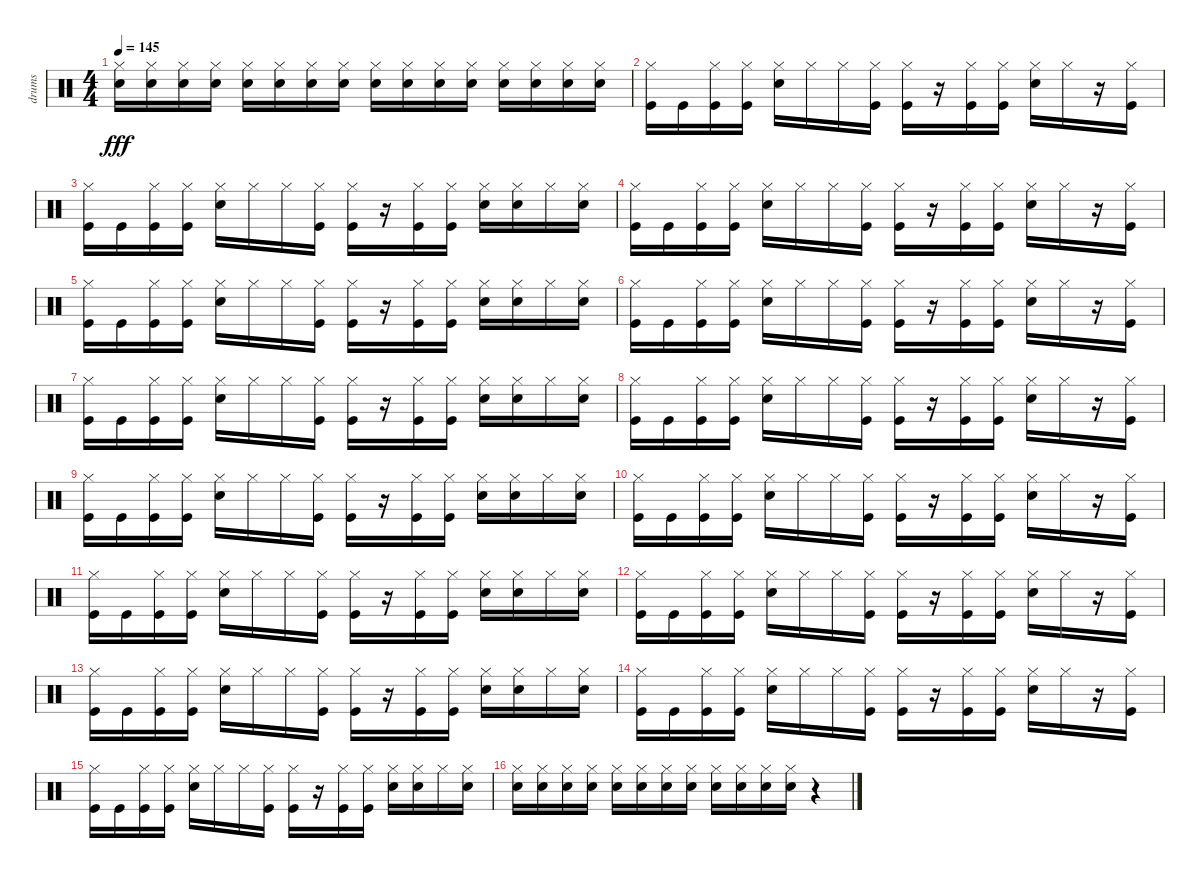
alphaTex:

\track ("drums" "drums") {instrument percussion}
\staff {score}
\articulation defaults
\ts (4 4)
\tempo 145
\clef neutral
\ks c
("Snare (hit) 2" "Hi-Hat (closed)").16{dy fff} ("Snare (hit) 2" "Hi-Hat (closed)").16 ("Snare (hit) 2" "Hi-Hat (closed)").16 ("Snare (hit) 2" "Hi-Hat (closed)").16 ("Snare (hit) 2" "Hi-Hat (closed)").16 ("Snare (hit) 2" "Hi-Hat (closed)").16 ("Snare (hit) 2" "Hi-Hat (closed)").16 ("Snare (hit) 2" "Hi-Hat (closed)").16 ("Snare (hit) 2" "Hi-Hat (closed)").16 ("Snare (hit) 2" "Hi-Hat (closed)").16 ("Snare (hit) 2" "Hi-Hat (closed)").16 ("Snare (hit) 2" "Hi-Hat (closed)").16 ("Snare (hit) 2" "Hi-Hat (closed)").16 ("Snare (hit) 2" "Hi-Hat (closed)").16 ("Snare (hit) 2" "Hi-Hat (closed)").16 ("Snare (hit) 2" "Hi-Hat (closed)").16 |
("Kick (hit)" "Hi-Hat (closed)").16 "Kick (hit)".16 ("Kick (hit)" "Hi-Hat (closed)").16 ("Kick (hit)" "Hi-Hat (closed)").16 ("Snare (hit) 2" "Hi-Hat (closed)").16 "Hi-Hat (closed)".16 "Hi-Hat (closed)".16 ("Kick (hit)" "Hi-Hat (closed)").16 ("Kick (hit)" "Hi-Hat (closed)").16 r.16 ("Kick (hit)" "Hi-Hat (closed)").16 ("Kick (hit)" "Hi-Hat (closed)").16 ("Snare (hit) 2" "Hi-Hat (closed)").16 "Hi-Hat (closed)".16 r.16 ("Kick (hit)" "Hi-Hat (closed)").16 |
("Kick (hit)" "Hi-Hat (closed)").16 "Kick (hit)".16 ("Kick (hit)" "Hi-Hat (closed)").16 ("Kick (hit)" "Hi-Hat (closed)").16 ("Snare (hit) 2" "Hi-Hat (closed)").16 "Hi-Hat (closed)".16 "Hi-Hat (closed)".16 ("Kick (hit)" "Hi-Hat (closed)").16 ("Kick (hit)" "Hi-Hat (closed)").16 r.16 ("Kick (hit)" "Hi-Hat (closed)").16 ("Kick (hit)" "Hi-Hat (closed)").16 ("Snare (hit) 2" "Hi-Hat (closed)").16 ("Snare (hit) 2" "Hi-Hat (closed)").16 "Hi-Hat (closed)".16 ("Snare (hit) 2" "Hi-Hat (closed)").16 |
("Kick (hit)" "Hi-Hat (closed)").16 "Kick (hit)".16 ("Kick (hit)" "Hi-Hat (closed)").16 ("Kick (hit)" "Hi-Hat (closed)").16 ("Snare (hit) 2" "Hi-Hat (closed)").16 "Hi-Hat (closed)".16 "Hi-Hat (closed)".16 ("Kick (hit)" "Hi-Hat (closed)").16 ("Kick (hit)" "Hi-Hat (closed)").16 r.16 ("Kick (hit)" "Hi-Hat (closed)").16 ("Kick (hit)" "Hi-Hat (closed)").16 ("Snare (hit) 2" "Hi-Hat (closed)").16 "Hi-Hat (closed)".16 r.16 ("Kick (hit)" "Hi-Hat (closed)").16 |
("Kick (hit)" "Hi-Hat (closed)").16 "Kick (hit)".16 ("Kick (hit)" "Hi-Hat (closed)").16 ("Kick (hit)" "Hi-Hat (closed)").16 ("Snare (hit) 2" "Hi-Hat (closed)").16 "Hi-Hat (closed)".16 "Hi-Hat (closed)".16 ("Kick (hit)" "Hi-Hat (closed)").16 ("Kick (hit)" "Hi-Hat (closed)").16 r.16 ("Kick (hit)" "Hi-Hat (closed)").16 ("Kick (hit)" "Hi-Hat (closed)").16 ("Snare (hit) 2" "Hi-Hat (closed)").16 ("Snare (hit) 2" "Hi-Hat (closed)").16 "Hi-Hat (closed)".16 ("Snare (hit) 2" "Hi-Hat (closed)").16 |
("Kick (hit)" "Hi-Hat (closed)").16 "Kick (hit)".16 ("Kick (hit)" "Hi-Hat (closed)").16 ("Kick (hit)" "Hi-Hat (closed)").16 ("Snare (hit) 2" "Hi-Hat (closed)").16 "Hi-Hat (closed)".16 "Hi-Hat (closed)".16 ("Kick (hit)" "Hi-Hat (closed)").16 ("Kick (hit)" "Hi-Hat (closed)").16 r.16 ("Kick (hit)" "Hi-Hat (closed)").16 ("Kick (hit)" "Hi-Hat (closed)").16 ("Snare (hit) 2" "Hi-Hat (closed)").16 "Hi-Hat (closed)".16 r.16 ("Kick (hit)" "Hi-Hat (closed)").16 |
("Kick (hit)" "Hi-Hat (closed)").16 "Kick (hit)".16 ("Kick (hit)" "Hi-Hat (closed)").16 ("Kick (hit)" "Hi-Hat (closed)").16 ("Snare (hit) 2" "Hi-Hat (closed)").16 "Hi-Hat (closed)".16 "Hi-Hat (closed)".16 ("Kick (hit)" "Hi-Hat (closed)").16 ("Kick (hit)" "Hi-Hat (closed)").16 r.16 ("Kick (hit)" "Hi-Hat (closed)").16 ("Kick (hit)" "Hi-Hat (closed)").16 ("Snare (hit) 2" "Hi-Hat (closed)").16 ("Snare (hit) 2" "Hi-Hat (closed)").16 "Hi-Hat (closed)".16 ("Snare (hit) 2" "Hi-Hat (closed)").16 |
("Kick (hit)" "Hi-Hat (closed)").16 "Kick (hit)".16 ("Kick (hit)" "Hi-Hat (closed)").16 ("Kick (hit)" "Hi-Hat (closed)").16 ("Snare (hit) 2" "Hi-Hat (closed)").16 "Hi-Hat (closed)".16 "Hi-Hat (closed)".16 ("Kick (hit)" "Hi-Hat (closed)").16 ("Kick (hit)" "Hi-Hat (closed)").16 r.16 ("Kick (hit)" "Hi-Hat (closed)").16 ("Kick (hit)" "Hi-Hat (closed)").16 ("Snare (hit) 2" "Hi-Hat (closed)").16 "Hi-Hat (closed)".16 r.16 ("Kick (hit)" "Hi-Hat (closed)").16 |
("Kick (hit)" "Hi-Hat (closed)").16 "Kick (hit)".16 ("Kick (hit)" "Hi-Hat (closed)").16 ("Kick (hit)" "Hi-Hat (closed)").16 ("Snare (hit) 2" "Hi-Hat (closed)").16 "Hi-Hat (closed)".16 "Hi-Hat (closed)".16 ("Kick (hit)" "Hi-Hat (closed)").16 ("Kick (hit)" "Hi-Hat (closed)").16 r.16 ("Kick (hit)" "Hi-Hat (closed)").16 ("Kick (hit)" "Hi-Hat (closed)").16 ("Snare (hit) 2" "Hi-Hat (closed)").16 ("Snare (hit) 2" "Hi-Hat (closed)").16 "Hi-Hat (closed)".16 ("Snare (hit) 2" "Hi-Hat (closed)").16 |
("Kick (hit)" "Hi-Hat (closed)").16 "Kick (hit)".16 ("Kick (hit)" "Hi-Hat (closed)").16 ("Kick (hit)" "Hi-Hat (closed)").16 ("Snare (hit) 2" "Hi-Hat (closed)").16 "Hi-Hat (closed)".16 "Hi-Hat (closed)".16 ("Kick (hit)" "Hi-Hat (closed)").16 ("Kick (hit)" "Hi-Hat (closed)").16 r.16 ("Kick (hit)" "Hi-Hat (closed)").16 ("Kick (hit)" "Hi-Hat (closed)").16 ("Snare (hit) 2" "Hi-Hat (closed)").16 "Hi-Hat (closed)".16 r.16 ("Kick (hit)" "Hi-Hat (closed)").16 |
("Kick (hit)" "Hi-Hat (closed)").16 "Kick (hit)".16 ("Kick (hit)" "Hi-Hat (closed)").16 ("Kick (hit)" "Hi-Hat (closed)").16 ("Snare (hit) 2" "Hi-Hat (closed)").16 "Hi-Hat (closed)".16 "Hi-Hat (closed)".16 ("Kick (hit)" "Hi-Hat (closed)").16 ("Kick (hit)" "Hi-Hat (closed)").16 r.16 ("Kick (hit)" "Hi-Hat (closed)").16 ("Kick (hit)" "Hi-Hat (closed)").16 ("Snare (hit) 2" "Hi-Hat (closed)").16 ("Snare (hit) 2" "Hi-Hat (closed)").16 "Hi-Hat (closed)".16 ("Snare (hit) 2" "Hi-Hat (closed)").16 |
("Kick (hit)" "Hi-Hat (closed)").16 "Kick (hit)".16 ("Kick (hit)" "Hi-Hat (closed)").16 ("Kick (hit)" "Hi-Hat (closed)").16 ("Snare (hit) 2" "Hi-Hat (closed)").16 "Hi-Hat (closed)".16 "Hi-Hat (closed)".16 ("Kick (hit)" "Hi-Hat (closed)").16 ("Kick (hit)" "Hi-Hat (closed)").16 r.16 ("Kick (hit)" "Hi-Hat (closed)").16 ("Kick (hit)" "Hi-Hat (closed)").16 ("Snare (hit) 2" "Hi-Hat (closed)").16 "Hi-Hat (closed)".16 r.16 ("Kick (hit)" "Hi-Hat (closed)").16 |
("Kick (hit)" "Hi-Hat (closed)").16 "Kick (hit)".16 ("Kick (hit)" "Hi-Hat (closed)").16 ("Kick (hit)" "Hi-Hat (closed)").16 ("Snare (hit) 2" "Hi-Hat (closed)").16 "Hi-Hat (closed)".16 "Hi-Hat (closed)".16 ("Kick (hit)" "Hi-Hat (closed)").16 ("Kick (hit)" "Hi-Hat (closed)").16 r.16 ("Kick (hit)" "Hi-Hat (closed)").16 ("Kick (hit)" "Hi-Hat (closed)").16 ("Snare (hit) 2" "Hi-Hat (closed)").16 ("Snare (hit) 2" "Hi-Hat (closed)").16 "Hi-Hat (closed)".16 ("Snare (hit) 2" "Hi-Hat (closed)").16 |
("Kick (hit)" "Hi-Hat (closed)").16 "Kick (hit)".16 ("Kick (hit)" "Hi-Hat (closed)").16 ("Kick (hit)" "Hi-Hat (closed)").16 ("Snare (hit) 2" "Hi-Hat (closed)").16 "Hi-Hat (closed)".16 "Hi-Hat (closed)".16 ("Kick (hit)" "Hi-Hat (closed)").16 ("Kick (hit)" "Hi-Hat (closed)").16 r.16 ("Kick (hit)" "Hi-Hat (closed)").16 ("Kick (hit)" "Hi-Hat (closed)").16 ("Snare (hit) 2" "Hi-Hat (closed)").16 "Hi-Hat (closed)".16 r.16 ("Kick (hit)" "Hi-Hat (closed)").16 |
("Kick (hit)" "Hi-Hat (closed)").16 "Kick (hit)".16 ("Kick (hit)" "Hi-Hat (closed)").16 ("Kick (hit)" "Hi-Hat (closed)").16 ("Snare (hit) 2" "Hi-Hat (closed)").16 "Hi-Hat (closed)".16 "Hi-Hat (closed)".16 ("Kick (hit)" "Hi-Hat (closed)").16 ("Kick (hit)" "Hi-Hat (closed)").16 r.16 ("Kick (hit)" "Hi-Hat (closed)").16 ("Kick (hit)" "Hi-Hat (closed)").16 ("Snare (hit) 2" "Hi-Hat (closed)").16 ("Snare (hit) 2" "Hi-Hat (closed)").16 "Hi-Hat (closed)".16 ("Snare (hit) 2" "Hi-Hat (closed)").16 |
("Snare (hit) 2" "Hi-Hat (closed)").16 ("Snare (hit) 2" "Hi-Hat (closed)").16 ("Snare (hit) 2" "Hi-Hat (closed)").16 ("Snare (hit) 2" "Hi-Hat (closed)").16 ("Snare (hit) 2" "Hi-Hat (closed)").16 ("Snare (hit) 2" "Hi-Hat (closed)").16 ("Snare (hit) 2" "Hi-Hat (closed)").16 ("Snare (hit) 2" "Hi-Hat (closed)").16 ("Snare (hit) 2" "Hi-Hat (closed)").16 ("Snare (hit) 2" "Hi-Hat (closed)").16 ("Snare (hit) 2" "Hi-Hat (closed)").16 ("Snare (hit) 2" "Hi-Hat (closed)").16 r.4
